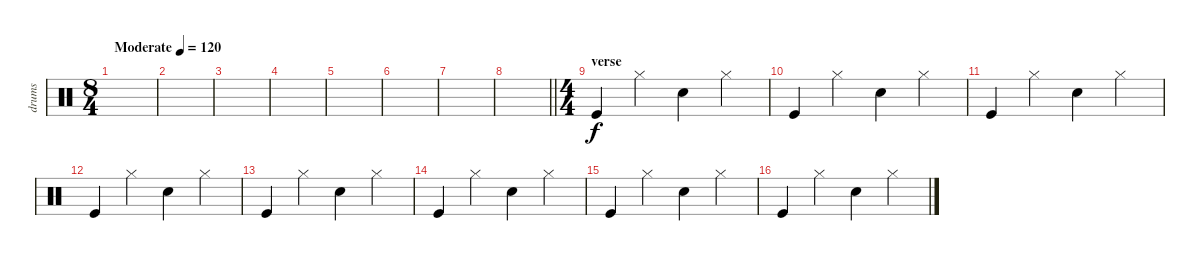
\track ("drums" "drums") {instrument percussion}
\staff {score}
\articulation defaults
\ts (8 4)
\tempo (120 "Moderate")
\tempo 160
\tempo (120 "Moderate")
\clef neutral
\ks c
|
|
|
|
|
|
|
\barLineRight lightlight
|
\ts (4 4)
\section ("" "verse")
"Kick (hit)".4 "Hi-Hat (closed)".4 "Snare (hit) 2".4 "Hi-Hat (closed)".4 |
"Kick (hit)".4 "Hi-Hat (closed)".4 "Snare (hit) 2".4 "Hi-Hat (closed)".4 |
"Kick (hit)".4 "Hi-Hat (closed)".4 "Snare (hit) 2".4 "Hi-Hat (closed)".4 |
"Kick (hit)".4 "Hi-Hat (closed)".4 "Snare (hit) 2".4 "Hi-Hat (closed)".4 |
"Kick (hit)".4 "Hi-Hat (closed)".4 "Snare (hit) 2".4 "Hi-Hat (closed)".4 |
"Kick (hit)".4 "Hi-Hat (closed)".4 "Snare (hit) 2".4 "Hi-Hat (closed)".4 |
"Kick (hit)".4 "Hi-Hat (closed)".4 "Snare (hit) 2".4 "Hi-Hat (closed)".4 |
"Kick (hit)".4 "Hi-Hat (closed)".4 "Snare (hit) 2".4 "Hi-Hat (closed)".4
